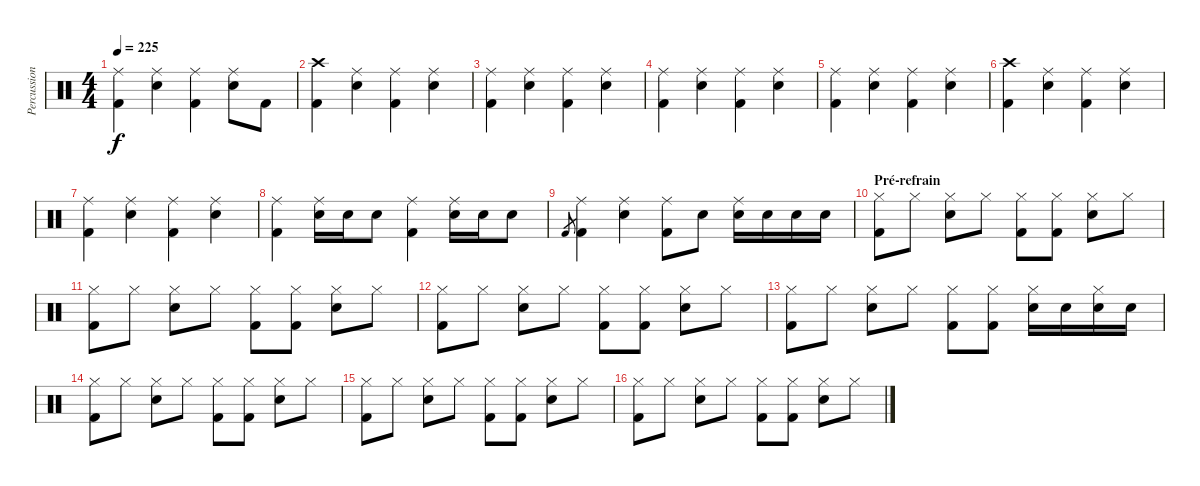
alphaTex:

\track ("Percussions" "Percussion") {instrument percussion}
\staff {score}
\articulation defaults
\ts (4 4)
\tempo 225
\clef neutral
\ks c
("Ride (middle)" "Kick (hit) 2").4{dy f} ("Ride (middle)" "Snare (hit) 2").4 ("Ride (middle)" "Kick (hit) 2").4 ("Ride (middle)" "Snare (hit) 2").8 "Kick (hit) 2".8 |
("Crash high (hit)" "Kick (hit) 2").4 ("Ride (middle)" "Snare (hit) 2").4 ("Ride (middle)" "Kick (hit) 2").4 ("Ride (middle)" "Snare (hit) 2").4 |
("Ride (middle)" "Kick (hit) 2").4 ("Ride (middle)" "Snare (hit) 2").4 ("Ride (middle)" "Kick (hit) 2").4 ("Ride (middle)" "Snare (hit) 2").4 |
("Ride (middle)" "Kick (hit) 2").4 ("Ride (middle)" "Snare (hit) 2").4 ("Ride (middle)" "Kick (hit) 2").4 ("Ride (middle)" "Snare (hit) 2").4 |
("Ride (middle)" "Kick (hit) 2").4 ("Ride (middle)" "Snare (hit) 2").4 ("Ride (middle)" "Kick (hit) 2").4 ("Ride (middle)" "Snare (hit) 2").4 |
("Crash high (hit)" "Kick (hit) 2").4 ("Ride (middle)" "Snare (hit) 2").4 ("Ride (middle)" "Kick (hit) 2").4 ("Ride (middle)" "Snare (hit) 2").4 |
("Ride (middle)" "Kick (hit) 2").4 ("Ride (middle)" "Snare (hit) 2").4 ("Ride (middle)" "Kick (hit) 2").4 ("Ride (middle)" "Snare (hit) 2").4 |
("Ride (middle)" "Kick (hit) 2").4 ("Ride (middle)" "Snare (hit) 2").16 "Snare (hit) 2".16 "Snare (hit) 2".8 ("Ride (middle)" "Kick (hit) 2").4 ("Ride (middle)" "Snare (hit) 2").16 "Snare (hit) 2".16 "Snare (hit) 2".8 |
"Kick (hit) 2".8{gr} ("Ride (middle)" "Kick (hit) 2").4 ("Ride (middle)" "Snare (hit) 2").4 ("Ride (middle)" "Kick (hit) 2").8 "Snare (hit) 2".8 ("Ride (middle)" "Snare (hit) 2").16 "Snare (hit) 2".16 "Snare (hit) 2".16 "Snare (hit) 2".16 |
\section ("" "Pré-refrain")
("Hi-Hat (closed)" "Kick (hit) 2").8 "Hi-Hat (closed)".8 ("Hi-Hat (closed)" "Snare (hit) 2").8 "Hi-Hat (closed)".8 ("Hi-Hat (closed)" "Kick (hit) 2").8 ("Hi-Hat (closed)" "Kick (hit) 2").8 ("Hi-Hat (closed)" "Snare (hit) 2").8 "Hi-Hat (closed)".8 |
("Hi-Hat (closed)" "Kick (hit) 2").8 "Hi-Hat (closed)".8 ("Hi-Hat (closed)" "Snare (hit) 2").8 "Hi-Hat (closed)".8 ("Hi-Hat (closed)" "Kick (hit) 2").8 ("Hi-Hat (closed)" "Kick (hit) 2").8 ("Hi-Hat (closed)" "Snare (hit) 2").8 "Hi-Hat (closed)".8 |
("Hi-Hat (closed)" "Kick (hit) 2").8 "Hi-Hat (closed)".8 ("Hi-Hat (closed)" "Snare (hit) 2").8 "Hi-Hat (closed)".8 ("Hi-Hat (closed)" "Kick (hit) 2").8 ("Hi-Hat (closed)" "Kick (hit) 2").8 ("Hi-Hat (closed)" "Snare (hit) 2").8 "Hi-Hat (closed)".8 |
("Hi-Hat (closed)" "Kick (hit) 2").8 "Hi-Hat (closed)".8 ("Hi-Hat (closed)" "Snare (hit) 2").8 "Hi-Hat (closed)".8 ("Hi-Hat (closed)" "Kick (hit) 2").8 ("Hi-Hat (closed)" "Kick (hit) 2").8 ("Hi-Hat (closed)" "Snare (hit) 2").16 "Snare (hit) 2".16 ("Hi-Hat (closed)" "Snare (hit) 2").16 "Snare (hit) 2".16 |
("Hi-Hat (closed)" "Kick (hit) 2").8 "Hi-Hat (closed)".8 ("Hi-Hat (closed)" "Snare (hit) 2").8 "Hi-Hat (closed)".8 ("Hi-Hat (closed)" "Kick (hit) 2").8 ("Hi-Hat (closed)" "Kick (hit) 2").8 ("Hi-Hat (closed)" "Snare (hit) 2").8 "Hi-Hat (closed)".8 |
("Hi-Hat (closed)" "Kick (hit) 2").8 "Hi-Hat (closed)".8 ("Hi-Hat (closed)" "Snare (hit) 2").8 "Hi-Hat (closed)".8 ("Hi-Hat (closed)" "Kick (hit) 2").8 ("Hi-Hat (closed)" "Kick (hit) 2").8 ("Hi-Hat (closed)" "Snare (hit) 2").8 "Hi-Hat (closed)".8 |
("Hi-Hat (closed)" "Kick (hit) 2").8 "Hi-Hat (closed)".8 ("Hi-Hat (closed)" "Snare (hit) 2").8 "Hi-Hat (closed)".8 ("Hi-Hat (closed)" "Kick (hit) 2").8 ("Hi-Hat (closed)" "Kick (hit) 2").8 ("Hi-Hat (closed)" "Snare (hit) 2").8 "Hi-Hat (closed)".8
